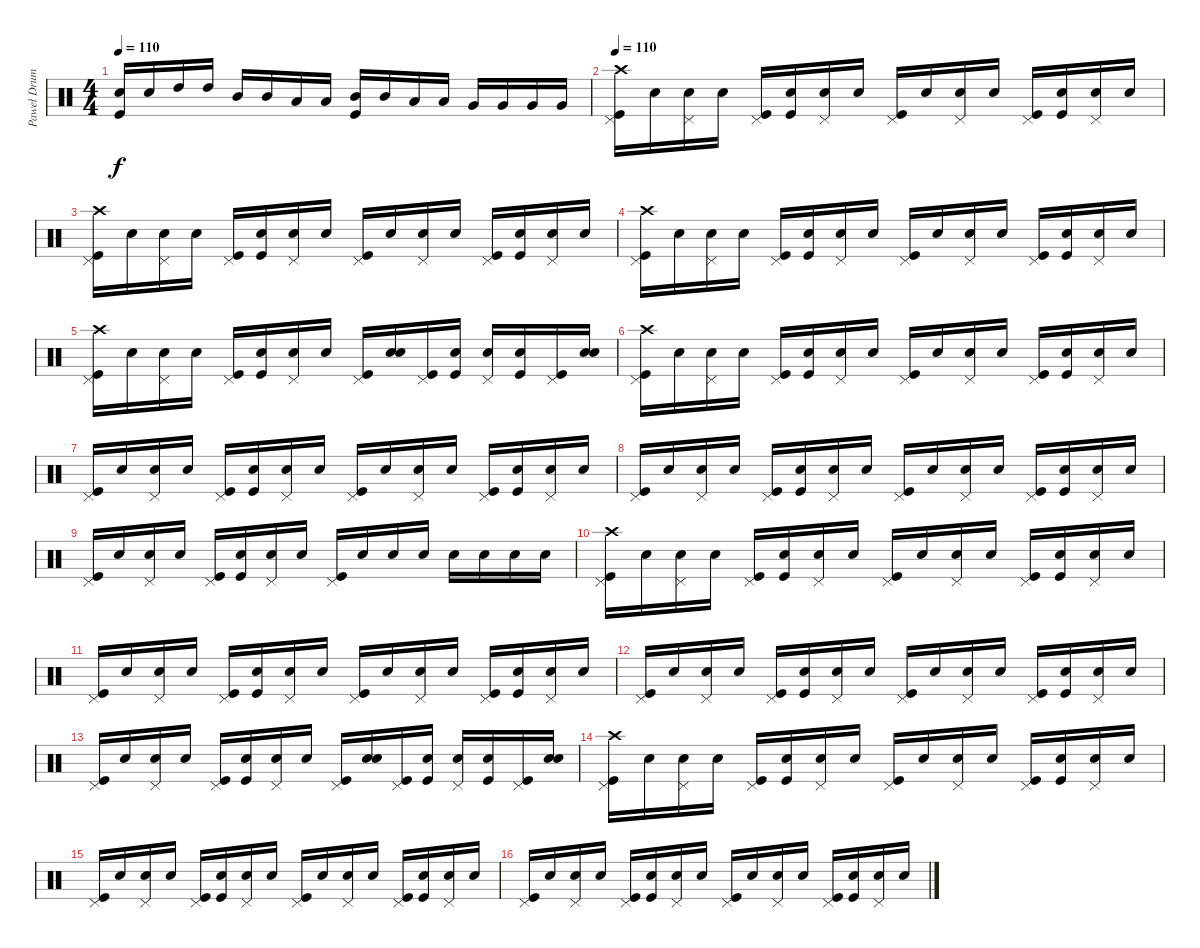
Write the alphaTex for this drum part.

\track ("Paweł Drums" "Paweł Drum") {instrument percussion}
\staff {score}
\articulation defaults
\ts (4 4)
\tempo 110
\clef neutral
\ks c
("Snare (hit) 2" "Kick (hit)").16{dy f} "Snare (hit) 2".16 "High Tom (hit)".16 "High Tom (hit)".16 "Mid Tom (hit)".16 "Mid Tom (hit)".16 "Low Tom (hit)".16 "Low Tom (hit)".16 ("Mid Tom (hit)" "Kick (hit)").16 "Mid Tom (hit)".16 "Low Tom (hit)".16 "Low Tom (hit)".16 "Very Low Tom (hit)".16 "Very Low Tom (hit)".16 "Very Low Tom (hit)".16 "Very Low Tom (hit)".16 |
\tempo 110
("Pedal Hi-Hat (hit)" "Crash high (hit)" "Kick (hit)").16 "Snare (hit)".16 ("Pedal Hi-Hat (hit)" "Snare (hit) 2").16 "Snare (hit)".16 ("Pedal Hi-Hat (hit)" "Kick (hit)").16 ("Snare (hit)" "Kick (hit)").16 ("Pedal Hi-Hat (hit)" "Snare (hit) 2").16 "Snare (hit)".16 ("Pedal Hi-Hat (hit)" "Kick (hit)").16 "Snare (hit)".16 ("Pedal Hi-Hat (hit)" "Snare (hit) 2").16 "Snare (hit)".16 ("Pedal Hi-Hat (hit)" "Kick (hit)").16 ("Snare (hit)" "Kick (hit)").16 ("Pedal Hi-Hat (hit)" "Snare (hit) 2").16 "Snare (hit)".16 |
("Pedal Hi-Hat (hit)" "Crash high (hit)" "Kick (hit)").16 "Snare (hit)".16 ("Pedal Hi-Hat (hit)" "Snare (hit) 2").16 "Snare (hit)".16 ("Pedal Hi-Hat (hit)" "Kick (hit)").16 ("Snare (hit)" "Kick (hit)").16 ("Pedal Hi-Hat (hit)" "Snare (hit) 2").16 "Snare (hit)".16 ("Pedal Hi-Hat (hit)" "Kick (hit)").16 "Snare (hit)".16 ("Pedal Hi-Hat (hit)" "Snare (hit) 2").16 "Snare (hit)".16 ("Pedal Hi-Hat (hit)" "Kick (hit)").16 ("Snare (hit)" "Kick (hit)").16 ("Pedal Hi-Hat (hit)" "Snare (hit) 2").16 "Snare (hit)".16 |
("Pedal Hi-Hat (hit)" "Crash high (hit)" "Kick (hit)").16 "Snare (hit)".16 ("Pedal Hi-Hat (hit)" "Snare (hit) 2").16 "Snare (hit)".16 ("Pedal Hi-Hat (hit)" "Kick (hit)").16 ("Snare (hit)" "Kick (hit)").16 ("Pedal Hi-Hat (hit)" "Snare (hit) 2").16 "Snare (hit)".16 ("Pedal Hi-Hat (hit)" "Kick (hit)").16 "Snare (hit)".16 ("Pedal Hi-Hat (hit)" "Snare (hit) 2").16 "Snare (hit)".16 ("Pedal Hi-Hat (hit)" "Kick (hit)").16 ("Snare (hit)" "Kick (hit)").16 ("Pedal Hi-Hat (hit)" "Snare (hit) 2").16 "Snare (hit)".16 |
("Pedal Hi-Hat (hit)" "Crash high (hit)" "Kick (hit)").16 "Snare (hit)".16 ("Pedal Hi-Hat (hit)" "Snare (hit) 2").16 "Snare (hit)".16 ("Pedal Hi-Hat (hit)" "Kick (hit)").16 ("Snare (hit)" "Kick (hit)").16 ("Pedal Hi-Hat (hit)" "Snare (hit) 2").16 "Snare (hit)".16 ("Pedal Hi-Hat (hit)" "Kick (hit)").16 ("Snare (hit)" "Snare (hit) 2").16 ("Pedal Hi-Hat (hit)" "Kick (hit)").16 ("Snare (hit)" "Kick (hit)").16 ("Pedal Hi-Hat (hit)" "Snare (hit) 2").16 ("Snare (hit)" "Kick (hit)").16 ("Pedal Hi-Hat (hit)" "Kick (hit)").16 ("Snare (hit)" "Snare (hit) 2").16 |
("Pedal Hi-Hat (hit)" "Crash high (hit)" "Kick (hit)").16 "Snare (hit)".16 ("Pedal Hi-Hat (hit)" "Snare (hit) 2").16 "Snare (hit)".16 ("Pedal Hi-Hat (hit)" "Kick (hit)").16 ("Snare (hit)" "Kick (hit)").16 ("Pedal Hi-Hat (hit)" "Snare (hit) 2").16 "Snare (hit)".16 ("Pedal Hi-Hat (hit)" "Kick (hit)").16 "Snare (hit)".16 ("Pedal Hi-Hat (hit)" "Snare (hit) 2").16 "Snare (hit)".16 ("Pedal Hi-Hat (hit)" "Kick (hit)").16 ("Snare (hit)" "Kick (hit)").16 ("Pedal Hi-Hat (hit)" "Snare (hit) 2").16 "Snare (hit)".16 |
("Pedal Hi-Hat (hit)" "Kick (hit)").16 "Snare (hit)".16 ("Pedal Hi-Hat (hit)" "Snare (hit) 2").16 "Snare (hit)".16 ("Pedal Hi-Hat (hit)" "Kick (hit)").16 ("Snare (hit)" "Kick (hit)").16 ("Pedal Hi-Hat (hit)" "Snare (hit) 2").16 "Snare (hit)".16 ("Pedal Hi-Hat (hit)" "Kick (hit)").16 "Snare (hit)".16 ("Pedal Hi-Hat (hit)" "Snare (hit) 2").16 "Snare (hit)".16 ("Pedal Hi-Hat (hit)" "Kick (hit)").16 ("Snare (hit)" "Kick (hit)").16 ("Pedal Hi-Hat (hit)" "Snare (hit) 2").16 "Snare (hit)".16 |
("Pedal Hi-Hat (hit)" "Kick (hit)").16 "Snare (hit)".16 ("Pedal Hi-Hat (hit)" "Snare (hit) 2").16 "Snare (hit)".16 ("Pedal Hi-Hat (hit)" "Kick (hit)").16 ("Snare (hit)" "Kick (hit)").16 ("Pedal Hi-Hat (hit)" "Snare (hit) 2").16 "Snare (hit)".16 ("Pedal Hi-Hat (hit)" "Kick (hit)").16 "Snare (hit)".16 ("Pedal Hi-Hat (hit)" "Snare (hit) 2").16 "Snare (hit)".16 ("Pedal Hi-Hat (hit)" "Kick (hit)").16 ("Snare (hit)" "Kick (hit)").16 ("Pedal Hi-Hat (hit)" "Snare (hit) 2").16 "Snare (hit)".16 |
("Pedal Hi-Hat (hit)" "Kick (hit)").16 "Snare (hit)".16 ("Pedal Hi-Hat (hit)" "Snare (hit) 2").16 "Snare (hit)".16 ("Pedal Hi-Hat (hit)" "Kick (hit)").16 ("Snare (hit)" "Kick (hit)").16 ("Pedal Hi-Hat (hit)" "Snare (hit) 2").16 "Snare (hit)".16 ("Pedal Hi-Hat (hit)" "Kick (hit)").16 "Snare (hit) 2".16 "Snare (hit) 2".16 "Snare (hit) 2".16 "Snare (hit) 2".16 "Snare (hit) 2".16 "Snare (hit) 2".16 "Snare (hit) 2".16 |
("Pedal Hi-Hat (hit)" "Crash high (hit)" "Kick (hit)").16 "Snare (hit)".16 ("Pedal Hi-Hat (hit)" "Snare (hit) 2").16 "Snare (hit)".16 ("Pedal Hi-Hat (hit)" "Kick (hit)").16 ("Snare (hit)" "Kick (hit)").16 ("Pedal Hi-Hat (hit)" "Snare (hit) 2").16 "Snare (hit)".16 ("Pedal Hi-Hat (hit)" "Kick (hit)").16 "Snare (hit)".16 ("Pedal Hi-Hat (hit)" "Snare (hit) 2").16 "Snare (hit)".16 ("Pedal Hi-Hat (hit)" "Kick (hit)").16 ("Snare (hit)" "Kick (hit)").16 ("Pedal Hi-Hat (hit)" "Snare (hit) 2").16 "Snare (hit)".16 |
("Pedal Hi-Hat (hit)" "Kick (hit)").16 "Snare (hit)".16 ("Pedal Hi-Hat (hit)" "Snare (hit) 2").16 "Snare (hit)".16 ("Pedal Hi-Hat (hit)" "Kick (hit)").16 ("Snare (hit)" "Kick (hit)").16 ("Pedal Hi-Hat (hit)" "Snare (hit) 2").16 "Snare (hit)".16 ("Pedal Hi-Hat (hit)" "Kick (hit)").16 "Snare (hit)".16 ("Pedal Hi-Hat (hit)" "Snare (hit) 2").16 "Snare (hit)".16 ("Pedal Hi-Hat (hit)" "Kick (hit)").16 ("Snare (hit)" "Kick (hit)").16 ("Pedal Hi-Hat (hit)" "Snare (hit) 2").16 "Snare (hit)".16 |
("Pedal Hi-Hat (hit)" "Kick (hit)").16 "Snare (hit)".16 ("Pedal Hi-Hat (hit)" "Snare (hit) 2").16 "Snare (hit)".16 ("Pedal Hi-Hat (hit)" "Kick (hit)").16 ("Snare (hit)" "Kick (hit)").16 ("Pedal Hi-Hat (hit)" "Snare (hit) 2").16 "Snare (hit)".16 ("Pedal Hi-Hat (hit)" "Kick (hit)").16 "Snare (hit)".16 ("Pedal Hi-Hat (hit)" "Snare (hit) 2").16 "Snare (hit)".16 ("Pedal Hi-Hat (hit)" "Kick (hit)").16 ("Snare (hit)" "Kick (hit)").16 ("Pedal Hi-Hat (hit)" "Snare (hit) 2").16 "Snare (hit)".16 |
("Pedal Hi-Hat (hit)" "Kick (hit)").16 "Snare (hit)".16 ("Pedal Hi-Hat (hit)" "Snare (hit) 2").16 "Snare (hit)".16 ("Pedal Hi-Hat (hit)" "Kick (hit)").16 ("Snare (hit)" "Kick (hit)").16 ("Pedal Hi-Hat (hit)" "Snare (hit) 2").16 "Snare (hit)".16 ("Pedal Hi-Hat (hit)" "Kick (hit)").16 ("Snare (hit)" "Snare (hit) 2").16 ("Pedal Hi-Hat (hit)" "Kick (hit)").16 ("Snare (hit)" "Kick (hit)").16 ("Pedal Hi-Hat (hit)" "Snare (hit) 2").16 ("Snare (hit)" "Kick (hit)").16 ("Pedal Hi-Hat (hit)" "Kick (hit)").16 ("Snare (hit)" "Snare (hit) 2").16 |
("Pedal Hi-Hat (hit)" "Crash high (hit)" "Kick (hit)").16 "Snare (hit)".16 ("Pedal Hi-Hat (hit)" "Snare (hit) 2").16 "Snare (hit)".16 ("Pedal Hi-Hat (hit)" "Kick (hit)").16 ("Snare (hit)" "Kick (hit)").16 ("Pedal Hi-Hat (hit)" "Snare (hit) 2").16 "Snare (hit)".16 ("Pedal Hi-Hat (hit)" "Kick (hit)").16 "Snare (hit)".16 ("Pedal Hi-Hat (hit)" "Snare (hit) 2").16 "Snare (hit)".16 ("Pedal Hi-Hat (hit)" "Kick (hit)").16 ("Snare (hit)" "Kick (hit)").16 ("Pedal Hi-Hat (hit)" "Snare (hit) 2").16 "Snare (hit)".16 |
("Pedal Hi-Hat (hit)" "Kick (hit)").16 "Snare (hit)".16 ("Pedal Hi-Hat (hit)" "Snare (hit) 2").16 "Snare (hit)".16 ("Pedal Hi-Hat (hit)" "Kick (hit)").16 ("Snare (hit)" "Kick (hit)").16 ("Pedal Hi-Hat (hit)" "Snare (hit) 2").16 "Snare (hit)".16 ("Pedal Hi-Hat (hit)" "Kick (hit)").16 "Snare (hit)".16 ("Pedal Hi-Hat (hit)" "Snare (hit) 2").16 "Snare (hit)".16 ("Pedal Hi-Hat (hit)" "Kick (hit)").16 ("Snare (hit)" "Kick (hit)").16 ("Pedal Hi-Hat (hit)" "Snare (hit) 2").16 "Snare (hit)".16 |
("Pedal Hi-Hat (hit)" "Kick (hit)").16 "Snare (hit)".16 ("Pedal Hi-Hat (hit)" "Snare (hit) 2").16 "Snare (hit)".16 ("Pedal Hi-Hat (hit)" "Kick (hit)").16 ("Snare (hit)" "Kick (hit)").16 ("Pedal Hi-Hat (hit)" "Snare (hit) 2").16 "Snare (hit)".16 ("Pedal Hi-Hat (hit)" "Kick (hit)").16 "Snare (hit)".16 ("Pedal Hi-Hat (hit)" "Snare (hit) 2").16 "Snare (hit)".16 ("Pedal Hi-Hat (hit)" "Kick (hit)").16 ("Snare (hit)" "Kick (hit)").16 ("Pedal Hi-Hat (hit)" "Snare (hit) 2").16 "Snare (hit)".16
